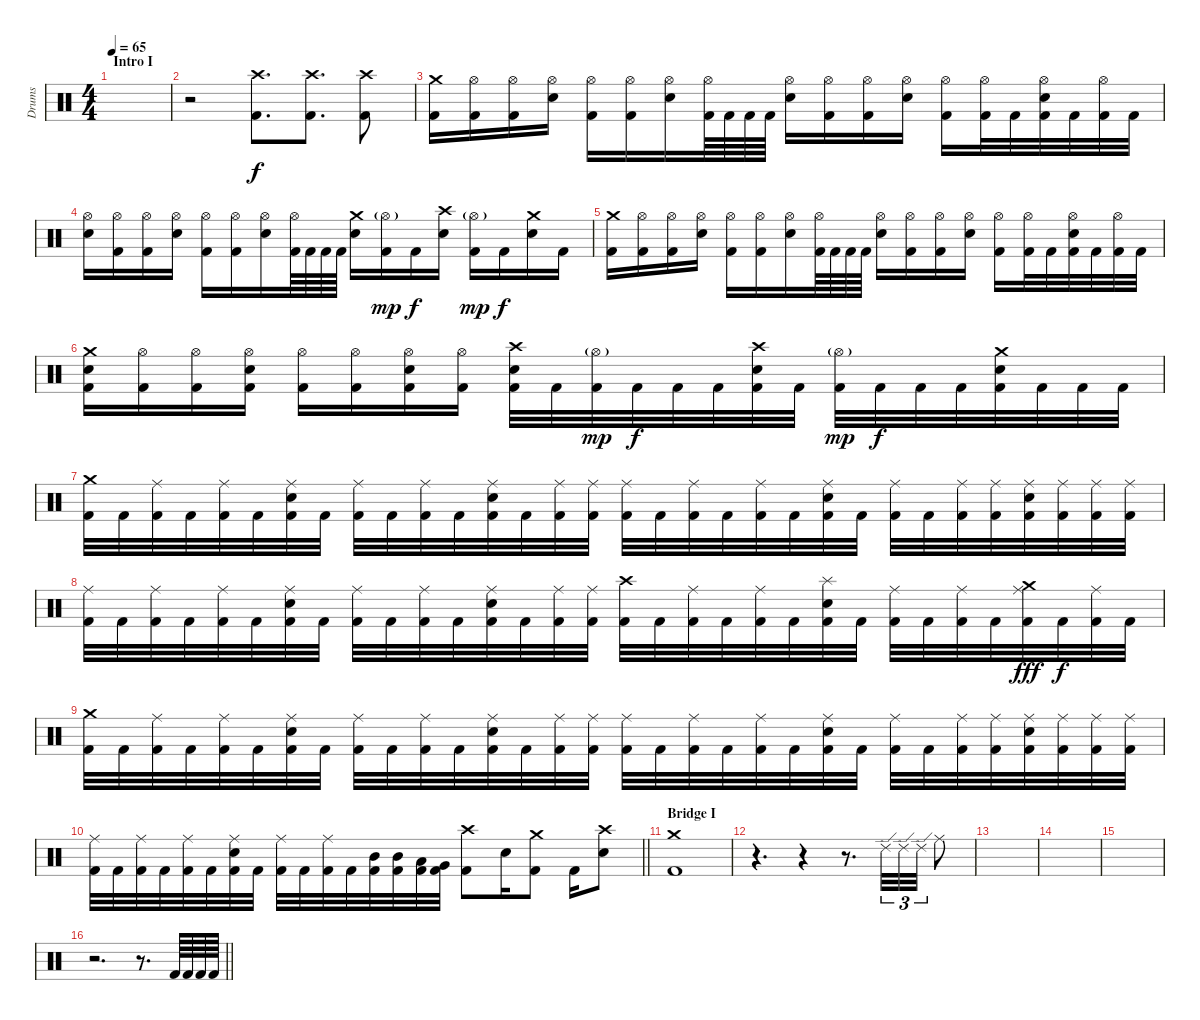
\track ("Drums" "Drums") {instrument percussion}
\staff {score}
\articulation defaults
\ts (4 4)
\section ("" "Intro I")
\tempo 65
\clef neutral
\ks c
|
r.2 ("Crash high (hit)" "Kick (hit) 2").8{d} ("Crash high (hit)" "Kick (hit) 2").8{d} ("Crash high (hit)" "Kick (hit) 2").8 |
("Crash medium (hit)" "Kick (hit) 2").16 ("Hi-Hat (open)" "Kick (hit) 2").16 ("Hi-Hat (open)" "Kick (hit) 2").16 ("Hi-Hat (open)" "Electric Snare (hit)").16 ("Hi-Hat (open)" "Kick (hit) 2").16 ("Hi-Hat (open)" "Kick (hit) 2").16 ("Hi-Hat (open)" "Electric Snare (hit)").16 ("Hi-Hat (open)" "Kick (hit) 2").64 "Kick (hit) 2".64 "Kick (hit) 2".64 "Kick (hit) 2".64 ("Hi-Hat (open)" "Electric Snare (hit)").16 ("Hi-Hat (open)" "Kick (hit) 2").16 ("Hi-Hat (open)" "Kick (hit) 2").16 ("Hi-Hat (open)" "Electric Snare (hit)").16 ("Hi-Hat (open)" "Kick (hit) 2").16 ("Hi-Hat (open)" "Kick (hit) 2").32 "Kick (hit) 2".32 ("Hi-Hat (open)" "Electric Snare (hit)" "Kick (hit) 2").32 "Kick (hit) 2".32 ("Hi-Hat (open)" "Kick (hit) 2").32 "Kick (hit) 2".32 |
("Hi-Hat (open)" "Electric Snare (hit)").16 ("Hi-Hat (open)" "Kick (hit) 2").16 ("Hi-Hat (open)" "Kick (hit) 2").16 ("Hi-Hat (open)" "Electric Snare (hit)").16 ("Hi-Hat (open)" "Kick (hit) 2").16 ("Hi-Hat (open)" "Kick (hit) 2").16 ("Hi-Hat (open)" "Electric Snare (hit)").16 ("Hi-Hat (open)" "Kick (hit) 2").64 "Kick (hit) 2".64 "Kick (hit) 2".64 "Kick (hit) 2".64 ("Crash medium (hit)" "Electric Snare (hit)").16 ("Hi-Hat (open)"{g} "Kick (hit) 2").16{dy mp} "Kick (hit) 2".16{dy f} ("Crash high (hit)" "Electric Snare (hit)").16 ("Hi-Hat (open)"{g} "Kick (hit) 2").16{dy mp} "Kick (hit) 2".16{dy f} ("Crash medium (hit)" "Electric Snare (hit)").16 "Kick (hit) 2".16 |
("Crash medium (hit)" "Kick (hit) 2").16 ("Hi-Hat (open)" "Kick (hit) 2").16 ("Hi-Hat (open)" "Kick (hit) 2").16 ("Hi-Hat (open)" "Electric Snare (hit)").16 ("Hi-Hat (open)" "Kick (hit) 2").16 ("Hi-Hat (open)" "Kick (hit) 2").16 ("Hi-Hat (open)" "Electric Snare (hit)").16 ("Hi-Hat (open)" "Kick (hit) 2").64 "Kick (hit) 2".64 "Kick (hit) 2".64 "Kick (hit) 2".64 ("Hi-Hat (open)" "Electric Snare (hit)").16 ("Hi-Hat (open)" "Kick (hit) 2").16 ("Hi-Hat (open)" "Kick (hit) 2").16 ("Hi-Hat (open)" "Electric Snare (hit)").16 ("Hi-Hat (open)" "Kick (hit) 2").16 ("Hi-Hat (open)" "Kick (hit) 2").32 "Kick (hit) 2".32 ("Hi-Hat (open)" "Electric Snare (hit)" "Kick (hit) 2").32 "Kick (hit) 2".32 ("Hi-Hat (open)" "Kick (hit) 2").32 "Kick (hit) 2".32 |
("Crash medium (hit)" "Electric Snare (hit)" "Kick (hit) 2").16 ("Hi-Hat (open)" "Kick (hit) 2").16 ("Hi-Hat (open)" "Kick (hit) 2").16 ("Hi-Hat (open)" "Electric Snare (hit)" "Kick (hit) 2").16 ("Hi-Hat (open)" "Kick (hit) 2").16 ("Hi-Hat (open)" "Kick (hit) 2").16 ("Hi-Hat (open)" "Electric Snare (hit)" "Kick (hit) 2").16 ("Hi-Hat (open)" "Kick (hit) 2").16 ("Crash high (hit)" "Electric Snare (hit)" "Kick (hit) 2").32 "Kick (hit) 2".32 ("Hi-Hat (open)"{g} "Kick (hit) 2").32{dy mp} "Kick (hit) 2".32{dy f} "Kick (hit) 2".32 "Kick (hit) 2".32 ("Crash high (hit)" "Electric Snare (hit)" "Kick (hit) 2").32 "Kick (hit) 2".32 ("Hi-Hat (open)"{g} "Kick (hit) 2").32{dy mp} "Kick (hit) 2".32{dy f} "Kick (hit) 2".32 "Kick (hit) 2".32 ("Crash medium (hit)" "Electric Snare (hit)" "Kick (hit) 2").32 "Kick (hit) 2".32 "Kick (hit) 2".32 "Kick (hit) 2".32 |
("Crash medium (hit)" "Kick (hit) 2").32 "Kick (hit) 2".32 ("Ride (middle)" "Kick (hit) 2").32 "Kick (hit) 2".32 ("Ride (middle)" "Kick (hit) 2").32 "Kick (hit) 2".32 ("Ride (middle)" "Electric Snare (hit)" "Kick (hit) 2").32 "Kick (hit) 2".32 ("Ride (middle)" "Kick (hit) 2").32 "Kick (hit) 2".32 ("Ride (middle)" "Kick (hit) 2").32 "Kick (hit) 2".32 ("Ride (middle)" "Electric Snare (hit)" "Kick (hit) 2").32 "Kick (hit) 2".32 ("Ride (middle)" "Kick (hit) 2").32 ("Ride (middle)" "Kick (hit) 2").32 ("Ride (middle)" "Kick (hit) 2").32 "Kick (hit) 2".32 ("Ride (middle)" "Kick (hit) 2").32 "Kick (hit) 2".32 ("Ride (middle)" "Kick (hit) 2").32 "Kick (hit) 2".32 ("Ride (middle)" "Electric Snare (hit)" "Kick (hit) 2").32 "Kick (hit) 2".32 ("Ride (middle)" "Kick (hit) 2").32 "Kick (hit) 2".32 ("Ride (middle)" "Kick (hit) 2").32 ("Ride (middle)" "Kick (hit) 2").32 ("Ride (middle)" "Electric Snare (hit)" "Kick (hit) 2").32 ("Ride (middle)" "Kick (hit) 2").32 ("Ride (middle)" "Kick (hit) 2").32 ("Ride (middle)" "Kick (hit) 2").32 |
("Ride (middle)" "Kick (hit) 2").32 "Kick (hit) 2".32 ("Ride (middle)" "Kick (hit) 2").32 "Kick (hit) 2".32 ("Ride (middle)" "Kick (hit) 2").32 "Kick (hit) 2".32 ("Ride (middle)" "Electric Snare (hit)" "Kick (hit) 2").32 "Kick (hit) 2".32 ("Ride (middle)" "Kick (hit) 2").32 "Kick (hit) 2".32 ("Ride (middle)" "Kick (hit) 2").32 "Kick (hit) 2".32 ("Ride (middle)" "Electric Snare (hit)" "Kick (hit) 2").32 "Kick (hit) 2".32 ("Ride (middle)" "Kick (hit) 2").32 ("Ride (middle)" "Kick (hit) 2").32 ("Crash high (hit)" "Kick (hit) 2").32 "Kick (hit) 2".32 ("Ride (middle)" "Kick (hit) 2").32 "Kick (hit) 2".32 ("Ride (middle)" "Kick (hit) 2").32 "Kick (hit) 2".32 ("Splash (hit)" "Electric Snare (hit)" "Kick (hit) 2").32 "Kick (hit) 2".32 ("Ride (middle)" "Kick (hit) 2").32 "Kick (hit) 2".32 ("Ride (middle)" "Kick (hit) 2").32 "Kick (hit) 2".32 ("Crash medium (hit)" "Ride (middle)" "Kick (hit) 2").32{dy fff} "Kick (hit) 2".32{dy f} ("Ride (middle)" "Kick (hit) 2").32 "Kick (hit) 2".32 |
("Crash medium (hit)" "Kick (hit) 2").32 "Kick (hit) 2".32 ("Ride (middle)" "Kick (hit) 2").32 "Kick (hit) 2".32 ("Ride (middle)" "Kick (hit) 2").32 "Kick (hit) 2".32 ("Ride (middle)" "Electric Snare (hit)" "Kick (hit) 2").32 "Kick (hit) 2".32 ("Ride (middle)" "Kick (hit) 2").32 "Kick (hit) 2".32 ("Ride (middle)" "Kick (hit) 2").32 "Kick (hit) 2".32 ("Ride (middle)" "Electric Snare (hit)" "Kick (hit) 2").32 "Kick (hit) 2".32 ("Ride (middle)" "Kick (hit) 2").32 ("Ride (middle)" "Kick (hit) 2").32 ("Ride (middle)" "Kick (hit) 2").32 "Kick (hit) 2".32 ("Ride (middle)" "Kick (hit) 2").32 "Kick (hit) 2".32 ("Ride (middle)" "Kick (hit) 2").32 "Kick (hit) 2".32 ("Ride (middle)" "Electric Snare (hit)" "Kick (hit) 2").32 "Kick (hit) 2".32 ("Ride (middle)" "Kick (hit) 2").32 "Kick (hit) 2".32 ("Ride (middle)" "Kick (hit) 2").32 ("Ride (middle)" "Kick (hit) 2").32 ("Ride (middle)" "Electric Snare (hit)" "Kick (hit) 2").32 ("Ride (middle)" "Kick (hit) 2").32 ("Ride (middle)" "Kick (hit) 2").32 ("Ride (middle)" "Kick (hit) 2").32 |
\barLineRight lightlight
("Ride (middle)" "Kick (hit) 2").32 "Kick (hit) 2".32 ("Ride (middle)" "Kick (hit) 2").32 "Kick (hit) 2".32 ("Ride (middle)" "Kick (hit) 2").32 "Kick (hit) 2".32 ("Ride (middle)" "Electric Snare (hit)" "Kick (hit) 2").32 "Kick (hit) 2".32 ("Ride (middle)" "Kick (hit) 2").32 "Kick (hit) 2".32 ("Ride (middle)" "Kick (hit) 2").32 "Kick (hit) 2".32 ("Mid Tom (hit)" "Kick (hit) 2").32 ("Mid Tom (hit)" "Kick (hit) 2").32 ("Low Tom (hit)" "Kick (hit) 2").32 ("Very Low Tom (hit)" "Kick (hit) 2").32 ("Crash high (hit)" "Kick (hit) 2").8 "Electric Snare (hit)".16 ("Crash medium (hit)" "Kick (hit) 2").8 "Kick (hit) 2".16 ("Crash high (hit)" "Electric Snare (hit)").8 |
\section ("" "Bridge I")
("Crash medium (hit)" "Kick (hit) 2").1 |
r.4{d} r.4 r.8{d} "Ride (edge) 2".32{tu (3 2)} "Ride (edge) 2".32{tu (3 2)} "Ride (edge) 2".32{tu (3 2)} "Ride (middle)".8 |
|
|
|
\barLineRight lightlight
r.2{d} r.8{d} "Kick (hit) 2".64 "Kick (hit) 2".64 "Kick (hit) 2".64 "Kick (hit) 2".64
